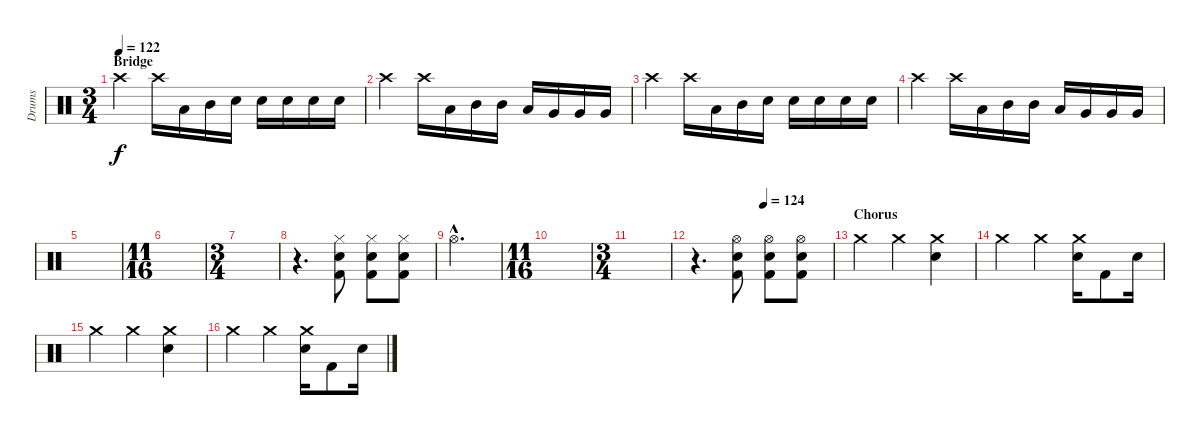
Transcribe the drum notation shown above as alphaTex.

\track ("Drums" "Drums") {instrument percussion}
\staff {score}
\articulation defaults
\ts (3 4)
\section ("" "Bridge")
\tempo 122
\clef neutral
\ks c "Crash high (hit)".4{dy f} "Crash high (hit)".16 "Low Tom (hit)".16 "Mid Tom (hit)".16 "Electric Snare (hit)".16 "Electric Snare (hit)".16 "Electric Snare (hit)".16 "Electric Snare (hit)".16 "Electric Snare (hit)".16
|
"Crash high (hit)".4 "Crash high (hit)".16 "Low Tom (hit)".16 "Mid Tom (hit)".16 "Mid Tom (hit)".16 "Low Tom (hit)".16 "Very Low Tom (hit)".16 "Very Low Tom (hit)".16 "Very Low Tom (hit)".16 |
"Crash high (hit)".4 "Crash high (hit)".16 "Low Tom (hit)".16 "Mid Tom (hit)".16 "Electric Snare (hit)".16 "Electric Snare (hit)".16 "Electric Snare (hit)".16 "Electric Snare (hit)".16 "Electric Snare (hit)".16 |
"Crash high (hit)".4 "Crash high (hit)".16 "Low Tom (hit)".16 "Mid Tom (hit)".16 "Mid Tom (hit)".16 "Low Tom (hit)".16 "Very Low Tom (hit)".16 "Very Low Tom (hit)".16 "Very Low Tom (hit)".16 |
|
\ts (11 16)
|
\ts (3 4)
|
r.4{d} ("Electric Snare (hit)" "Kick (hit) 2" "Hi-Hat (closed)").8 ("Electric Snare (hit)" "Kick (hit) 2" "Hi-Hat (closed)").8 ("Electric Snare (hit)" "Kick (hit) 2" "Hi-Hat (closed)").8 |
"Hi-Hat (open)"{hac}.2{d} |
\ts (11 16)
|
\ts (3 4)
|
\tempo (124 0.5)
r.4{d} ("Electric Snare (hit)" "Kick (hit) 2" "Hi-Hat (open)").8 ("Electric Snare (hit)" "Kick (hit) 2" "Hi-Hat (open)").8 ("Electric Snare (hit)" "Kick (hit) 2" "Hi-Hat (open)").8 |
\section ("" "Chorus")
"Crash medium (hit)".4 "Crash medium (hit)".4 ("Electric Snare (hit)" "Crash medium (hit)").4 |
"Crash medium (hit)".4 "Crash medium (hit)".4 ("Electric Snare (hit)" "Crash medium (hit)").16 "Kick (hit) 2".8 "Electric Snare (hit)".16 |
"Crash medium (hit)".4 "Crash medium (hit)".4 ("Electric Snare (hit)" "Crash medium (hit)").4 |
"Crash medium (hit)".4 "Crash medium (hit)".4 ("Electric Snare (hit)" "Crash medium (hit)").16 "Kick (hit) 2".8 "Electric Snare (hit)".16
